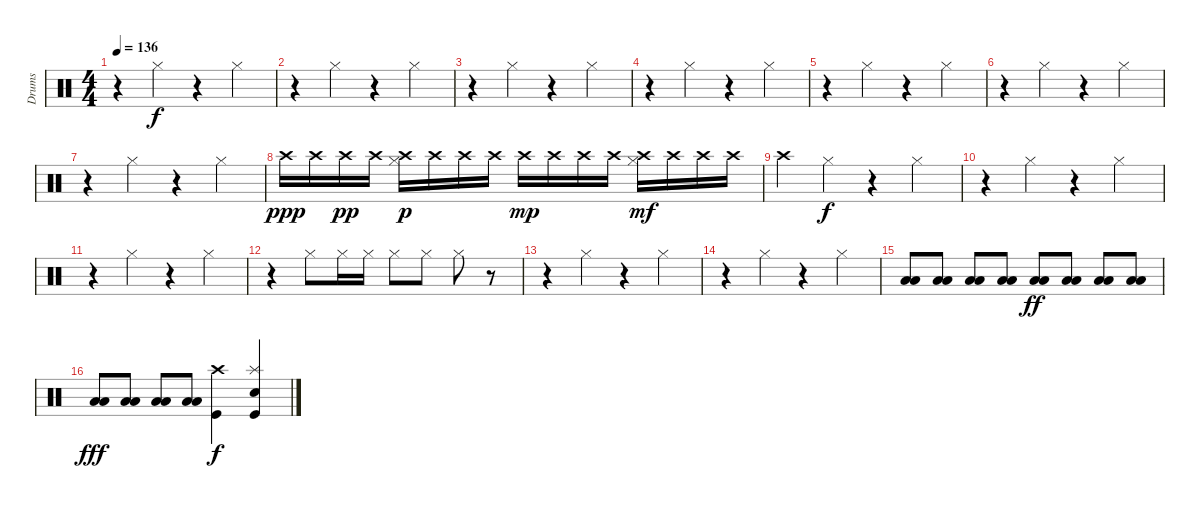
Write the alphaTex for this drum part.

\track ("Drums" "Drums") {instrument percussion}
\staff {score}
\articulation defaults
\ts (4 4)
\tempo 136
\clef neutral
\ks c
r.4{dy f} "Hi-Hat (closed)".4 r.4 "Hi-Hat (closed)".4 |
r.4 "Hi-Hat (closed)".4 r.4 "Hi-Hat (closed)".4 |
r.4 "Hi-Hat (closed)".4 r.4 "Hi-Hat (closed)".4 |
r.4 "Hi-Hat (closed)".4 r.4 "Hi-Hat (closed)".4 |
r.4 "Hi-Hat (closed)".4 r.4 "Hi-Hat (closed)".4 |
r.4 "Hi-Hat (closed)".4 r.4 "Hi-Hat (closed)".4 |
r.4 "Hi-Hat (closed)".4 r.4 "Hi-Hat (closed)".4 |
"Crash high (hit)".16{dy ppp} "Crash high (hit)".16 "Crash high (hit)".16{dy pp} "Crash high (hit)".16 ("Crash high (hit)" "Hi-Hat (closed)").16{dy p} "Crash high (hit)".16 "Crash high (hit)".16 "Crash high (hit)".16 "Crash high (hit)".16{dy mp} "Crash high (hit)".16 "Crash high (hit)".16 "Crash high (hit)".16 ("Crash high (hit)" "Hi-Hat (closed)").16{dy mf} "Crash high (hit)".16 "Crash high (hit)".16 "Crash high (hit)".16 |
"Crash high (hit)".4 "Hi-Hat (closed)".4{dy f} r.4 "Hi-Hat (closed)".4 |
r.4 "Hi-Hat (closed)".4 r.4 "Hi-Hat (closed)".4 |
r.4 "Hi-Hat (closed)".4 r.4 "Hi-Hat (closed)".4 |
r.4 "Hi-Hat (closed)".8 "Hi-Hat (closed)".16 "Hi-Hat (closed)".16 "Hi-Hat (closed)".8 "Hi-Hat (closed)".8 "Hi-Hat (closed)".8 r.8 |
r.4 "Hi-Hat (closed)".4 r.4 "Hi-Hat (closed)".4 |
r.4 "Hi-Hat (closed)".4 r.4 "Hi-Hat (closed)".4 |
("Low Floor Tom (hit)" "Low Floor Tom (hit)").8 ("Low Floor Tom (hit)" "Low Floor Tom (hit)").8 ("Low Floor Tom (hit)" "Low Floor Tom (hit)").8 ("Low Floor Tom (hit)" "Low Floor Tom (hit)").8 ("Low Floor Tom (hit)" "Low Floor Tom (hit)").8{dy ff} ("Low Floor Tom (hit)" "Low Floor Tom (hit)").8 ("Low Floor Tom (hit)" "Low Floor Tom (hit)").8 ("Low Floor Tom (hit)" "Low Floor Tom (hit)").8 |
("Low Floor Tom (hit)" "Low Floor Tom (hit)").8{dy fff} ("Low Floor Tom (hit)" "Low Floor Tom (hit)").8 ("Low Floor Tom (hit)" "Low Floor Tom (hit)").8 ("Low Floor Tom (hit)" "Low Floor Tom (hit)").8 ("Crash high (hit)" "Kick (hit)").4{dy f} ("Splash (hit)" "Snare (hit) 2" "Kick (hit)").4
